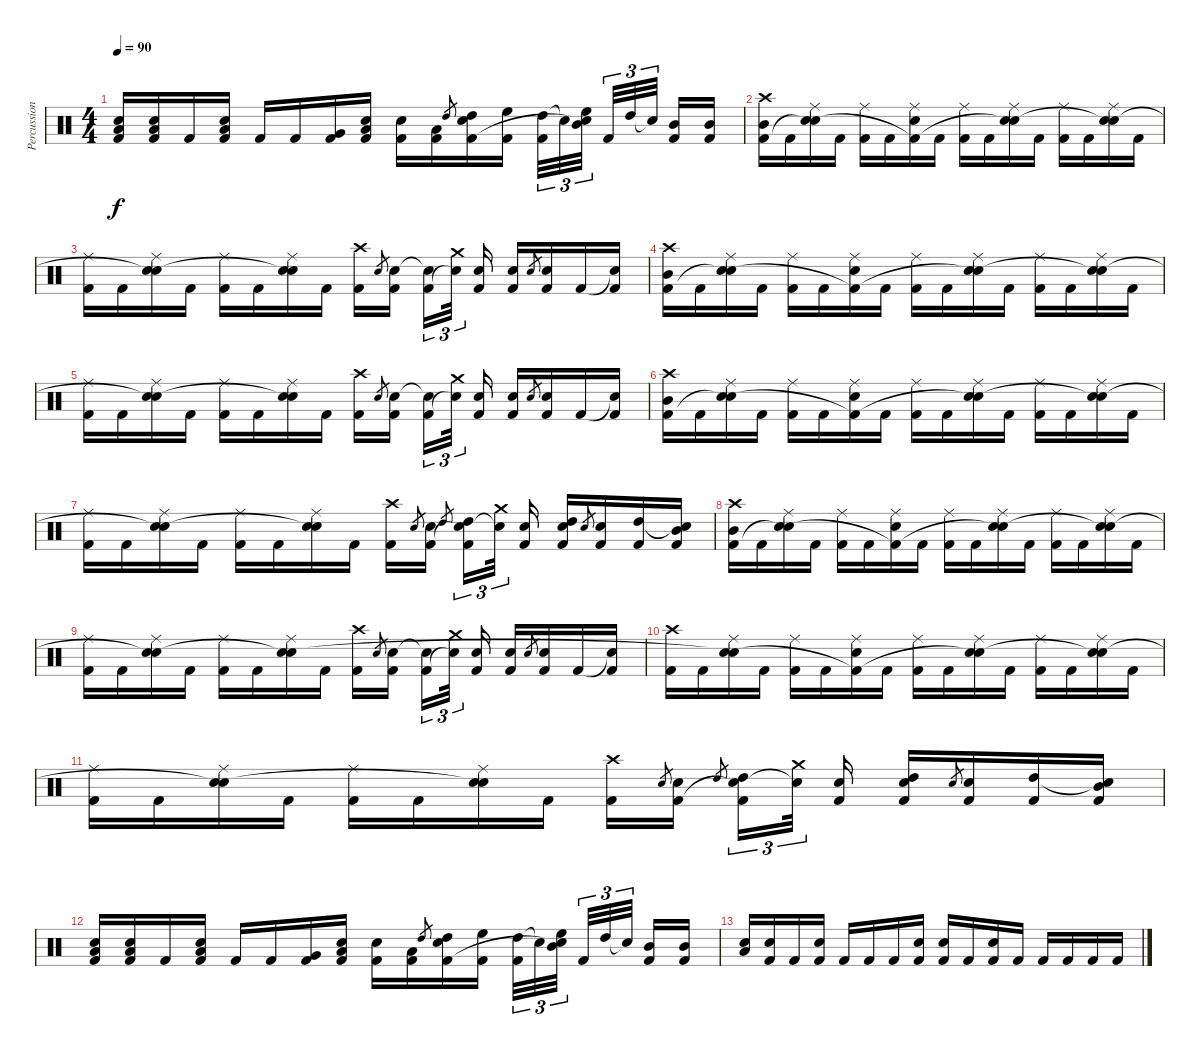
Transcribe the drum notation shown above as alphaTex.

\track ("Percussion" "Percussion") {instrument percussion}
\staff {score}
\articulation defaults
\ts (4 4)
\tempo 90
\clef neutral
\ks c
("Low Tom (hit)" "Electric Snare (hit)" "Kick (hit) 2").16{dy f} ("Low Floor Tom (hit)" "Electric Snare (hit)" "Kick (hit) 2").16 "Kick (hit) 2".16 ("Low Floor Tom (hit)" "Electric Snare (hit)" "Kick (hit) 2").16 "Kick (hit) 2".16 "Kick (hit) 2".16 ("Very Low Tom (hit)" "Kick (hit) 2").16 ("Low Floor Tom (hit)" "Electric Snare (hit)" "Kick (hit) 2").16 ("Electric Snare (hit)" "Kick (hit) 2").16 ("Low Floor Tom (hit)" "Kick (hit) 2").16 "High Tom (hit)".8{gr} ("High Tom (hit)" "Electric Snare (hit)" "Kick (hit) 2").16 ("High Floor Tom (hit)" "Kick (hit) 2").16 ("High Tom (hit)" "Kick (hit) 2").32{tu (3 2)} "Snare (hit)"{t}.32{tu (3 2)} ("Mid Tom (hit)" "High Floor Tom (hit)" "Snare (hit)"{t}).32{tu (3 2)} "Kick (hit) 2".32{tu (3 2)} "High Tom (hit)".32{tu (3 2)} "Snare (hit)"{t}.32{tu (3 2)} ("Mid Tom (hit)" "Kick (hit) 2").16 ("Mid Tom (hit)" "Kick (hit) 2").16 |
("Mid Tom (hit)" "Crash high (hit)" "Kick (hit) 2").16 "Kick (hit) 2".16 ("Ride (middle)" "Electric Snare (hit)" "Snare (hit)"{t}).16 "Kick (hit) 2".16 ("Ride (middle)" "Kick (hit) 2").16 "Kick (hit) 2".16 ("Ride (middle)" "Electric Snare (hit)" "Kick (hit) 2"{t}).16 "Kick (hit) 2".16 ("Ride (middle)" "Kick (hit) 2").16 "Kick (hit) 2".16 ("Ride (middle)" "Electric Snare (hit)" "Snare (hit)"{t}).16 "Kick (hit) 2".16 ("Ride (middle)" "Kick (hit) 2").16 "Kick (hit) 2".16 ("Ride (middle)" "Electric Snare (hit)" "Snare (hit)"{t}).16 "Kick (hit) 2".16 |
("Ride (middle)" "Kick (hit) 2").16 "Kick (hit) 2".16 ("Ride (middle)" "Electric Snare (hit)" "Snare (hit)"{t}).16 "Kick (hit) 2".16 ("Ride (middle)" "Kick (hit) 2").16 "Kick (hit) 2".16 ("Ride (middle)" "Electric Snare (hit)" "Snare (hit)"{t}).16 "Kick (hit) 2".16 ("Crash high (hit)" "Kick (hit) 2").16 "Electric Snare (hit)".8{gr} ("Electric Snare (hit)" "Kick (hit) 2").16 ("Snare (hit)"{t} "Kick (hit) 2").16{tu (3 2)} ("Crash medium (hit)" "Snare (hit)"{t}).32{tu (3 2)} ("Electric Snare (hit)" "Kick (hit) 2").16 ("Electric Snare (hit)" "Kick (hit) 2").16 "Electric Snare (hit)".8{gr} ("Electric Snare (hit)" "Kick (hit) 2").16 "Kick (hit) 2".16 ("Snare (hit)"{t} "Kick (hit) 2").16 |
("Mid Tom (hit)" "Crash high (hit)" "Kick (hit) 2").16 "Kick (hit) 2".16 ("Ride (middle)" "Electric Snare (hit)" "Snare (hit)"{t}).16 "Kick (hit) 2".16 ("Ride (middle)" "Kick (hit) 2").16 "Kick (hit) 2".16 ("Ride (middle)" "Electric Snare (hit)" "Kick (hit) 2"{t}).16 "Kick (hit) 2".16 ("Ride (middle)" "Kick (hit) 2").16 "Kick (hit) 2".16 ("Ride (middle)" "Electric Snare (hit)" "Snare (hit)"{t}).16 "Kick (hit) 2".16 ("Ride (middle)" "Kick (hit) 2").16 "Kick (hit) 2".16 ("Ride (middle)" "Electric Snare (hit)" "Snare (hit)"{t}).16 "Kick (hit) 2".16 |
("Ride (middle)" "Kick (hit) 2").16 "Kick (hit) 2".16 ("Ride (middle)" "Electric Snare (hit)" "Snare (hit)"{t}).16 "Kick (hit) 2".16 ("Ride (middle)" "Kick (hit) 2").16 "Kick (hit) 2".16 ("Ride (middle)" "Electric Snare (hit)" "Snare (hit)"{t}).16 "Kick (hit) 2".16 ("Crash high (hit)" "Kick (hit) 2").16 "Electric Snare (hit)".8{gr} ("Electric Snare (hit)" "Kick (hit) 2").16 ("Snare (hit)"{t} "Kick (hit) 2").16{tu (3 2)} ("Crash medium (hit)" "Snare (hit)"{t}).32{tu (3 2)} ("Electric Snare (hit)" "Kick (hit) 2").16 ("Electric Snare (hit)" "Kick (hit) 2").16 "Electric Snare (hit)".8{gr} ("Electric Snare (hit)" "Kick (hit) 2").16 "Kick (hit) 2".16 ("Snare (hit)"{t} "Kick (hit) 2").16 |
("Mid Tom (hit)" "Crash high (hit)" "Kick (hit) 2").16 "Kick (hit) 2".16 ("Ride (middle)" "Electric Snare (hit)" "Snare (hit)"{t}).16 "Kick (hit) 2".16 ("Ride (middle)" "Kick (hit) 2").16 "Kick (hit) 2".16 ("Ride (middle)" "Electric Snare (hit)" "Kick (hit) 2"{t}).16 "Kick (hit) 2".16 ("Ride (middle)" "Kick (hit) 2").16 "Kick (hit) 2".16 ("Ride (middle)" "Electric Snare (hit)" "Snare (hit)"{t}).16 "Kick (hit) 2".16 ("Ride (middle)" "Kick (hit) 2").16 "Kick (hit) 2".16 ("Ride (middle)" "Electric Snare (hit)" "Snare (hit)"{t}).16 "Kick (hit) 2".16 |
("Ride (middle)" "Kick (hit) 2").16 "Kick (hit) 2".16 ("Ride (middle)" "Electric Snare (hit)" "Snare (hit)"{t}).16 "Kick (hit) 2".16 ("Ride (middle)" "Kick (hit) 2").16 "Kick (hit) 2".16 ("Ride (middle)" "Electric Snare (hit)" "Snare (hit)"{t}).16 "Kick (hit) 2".16 ("Crash high (hit)" "Kick (hit) 2").16 "Electric Snare (hit)".8{gr} ("Electric Snare (hit)" "Kick (hit) 2").16 "High Tom (hit)".8{gr} ("High Tom (hit)" "Snare (hit)"{t} "Kick (hit) 2").16{tu (3 2)} ("Crash medium (hit)" "Snare (hit)"{t}).32{tu (3 2)} ("Electric Snare (hit)" "Kick (hit) 2").16 ("High Tom (hit)" "Electric Snare (hit)" "Kick (hit) 2").16 "Electric Snare (hit)".8{gr} ("Electric Snare (hit)" "Kick (hit) 2").16 ("High Tom (hit)" "Kick (hit) 2").16 ("Snare (hit)"{t} "Mid Tom (hit)" "Kick (hit) 2").16 |
("Mid Tom (hit)" "Crash high (hit)" "Kick (hit) 2").16 "Kick (hit) 2".16 ("Ride (middle)" "Electric Snare (hit)" "Snare (hit)"{t}).16 "Kick (hit) 2".16 ("Ride (middle)" "Kick (hit) 2").16 "Kick (hit) 2".16 ("Ride (middle)" "Electric Snare (hit)" "Kick (hit) 2"{t}).16 "Kick (hit) 2".16 ("Ride (middle)" "Kick (hit) 2").16 "Kick (hit) 2".16 ("Ride (middle)" "Electric Snare (hit)" "Snare (hit)"{t}).16 "Kick (hit) 2".16 ("Ride (middle)" "Kick (hit) 2").16 "Kick (hit) 2".16 ("Ride (middle)" "Electric Snare (hit)" "Snare (hit)"{t}).16 "Kick (hit) 2".16 |
("Ride (middle)" "Kick (hit) 2").16 "Kick (hit) 2".16 ("Ride (middle)" "Electric Snare (hit)" "Snare (hit)"{t}).16 "Kick (hit) 2".16 ("Ride (middle)" "Kick (hit) 2").16 "Kick (hit) 2".16 ("Ride (middle)" "Electric Snare (hit)" "Snare (hit)"{t}).16 "Kick (hit) 2".16 ("Crash high (hit)" "Kick (hit) 2").16 "Electric Snare (hit)".8{gr} ("Electric Snare (hit)" "Kick (hit) 2").16 ("Snare (hit)"{t} "Kick (hit) 2").16{tu (3 2)} ("Crash medium (hit)" "Snare (hit)"{t}).32{tu (3 2)} ("Electric Snare (hit)" "Kick (hit) 2").16 ("Electric Snare (hit)" "Kick (hit) 2").16 "Electric Snare (hit)".8{gr} ("Electric Snare (hit)" "Kick (hit) 2").16 "Kick (hit) 2".16 ("Snare (hit)"{t} "Kick (hit) 2").16 |
("Crash high (hit)" "Kick (hit) 2").16 "Kick (hit) 2".16 ("Ride (middle)" "Electric Snare (hit)" "Snare (hit)"{t}).16 "Kick (hit) 2".16 ("Ride (middle)" "Kick (hit) 2").16 "Kick (hit) 2".16 ("Ride (middle)" "Electric Snare (hit)" "Kick (hit) 2"{t}).16 "Kick (hit) 2".16 ("Ride (middle)" "Kick (hit) 2").16 "Kick (hit) 2".16 ("Ride (middle)" "Electric Snare (hit)" "Snare (hit)"{t}).16 "Kick (hit) 2".16 ("Ride (middle)" "Kick (hit) 2").16 "Kick (hit) 2".16 ("Ride (middle)" "Electric Snare (hit)" "Snare (hit)"{t}).16 "Kick (hit) 2".16 |
("Ride (middle)" "Kick (hit) 2").16 "Kick (hit) 2".16 ("Ride (middle)" "Electric Snare (hit)" "Snare (hit)"{t}).16 "Kick (hit) 2".16 ("Ride (middle)" "Kick (hit) 2").16 "Kick (hit) 2".16 ("Ride (middle)" "Electric Snare (hit)" "Snare (hit)"{t}).16 "Kick (hit) 2".16 ("Crash high (hit)" "Kick (hit) 2").16 "Electric Snare (hit)".8{gr} ("Electric Snare (hit)" "Kick (hit) 2").16 "High Tom (hit)".8{gr} ("High Tom (hit)" "Snare (hit)"{t} "Kick (hit) 2").16{tu (3 2)} ("Crash medium (hit)" "Snare (hit)"{t}).32{tu (3 2)} ("Electric Snare (hit)" "Kick (hit) 2").16 ("High Tom (hit)" "Electric Snare (hit)" "Kick (hit) 2").16 "Electric Snare (hit)".8{gr} ("Electric Snare (hit)" "Kick (hit) 2").16 ("High Tom (hit)" "Kick (hit) 2").16 ("Snare (hit)"{t} "Mid Tom (hit)" "Kick (hit) 2").16 |
("Low Tom (hit)" "Electric Snare (hit)" "Kick (hit) 2").16{volume 0} ("Low Floor Tom (hit)" "Electric Snare (hit)" "Kick (hit) 2").16 "Kick (hit) 2".16 ("Low Floor Tom (hit)" "Electric Snare (hit)" "Kick (hit) 2").16 "Kick (hit) 2".16 "Kick (hit) 2".16 ("Very Low Tom (hit)" "Kick (hit) 2").16 ("Low Floor Tom (hit)" "Electric Snare (hit)" "Kick (hit) 2").16 ("Electric Snare (hit)" "Kick (hit) 2").16 ("Low Floor Tom (hit)" "Kick (hit) 2").16 "High Tom (hit)".8{gr} ("High Tom (hit)" "Electric Snare (hit)" "Kick (hit) 2").16 ("High Floor Tom (hit)" "Kick (hit) 2").16 ("High Tom (hit)" "Kick (hit) 2").32{tu (3 2)} "Snare (hit)"{t}.32{tu (3 2)} ("Mid Tom (hit)" "High Floor Tom (hit)" "Snare (hit)"{t}).32{tu (3 2)} "Kick (hit) 2".32{tu (3 2)} "High Tom (hit)".32{tu (3 2)} "Snare (hit)"{t}.32{tu (3 2)} ("Mid Tom (hit)" "Kick (hit) 2").16 ("Mid Tom (hit)" "Kick (hit) 2").16 |
("Electric Snare (hit)" "Low Floor Tom (hit)").16 ("Electric Snare (hit)" "Kick (hit) 2").16 "Kick (hit) 2".16 ("Electric Snare (hit)" "Kick (hit) 2").16 "Kick (hit) 2".16 "Kick (hit) 2".16 "Kick (hit) 2".16 ("Electric Snare (hit)" "Kick (hit) 2").16 ("Electric Snare (hit)" "Kick (hit) 2").16 "Kick (hit) 2".16 ("Electric Snare (hit)" "Kick (hit) 2").16 "Kick (hit) 2".16 "Kick (hit) 2".16 "Kick (hit) 2".16 "Kick (hit) 2".16 "Kick (hit) 2".16
